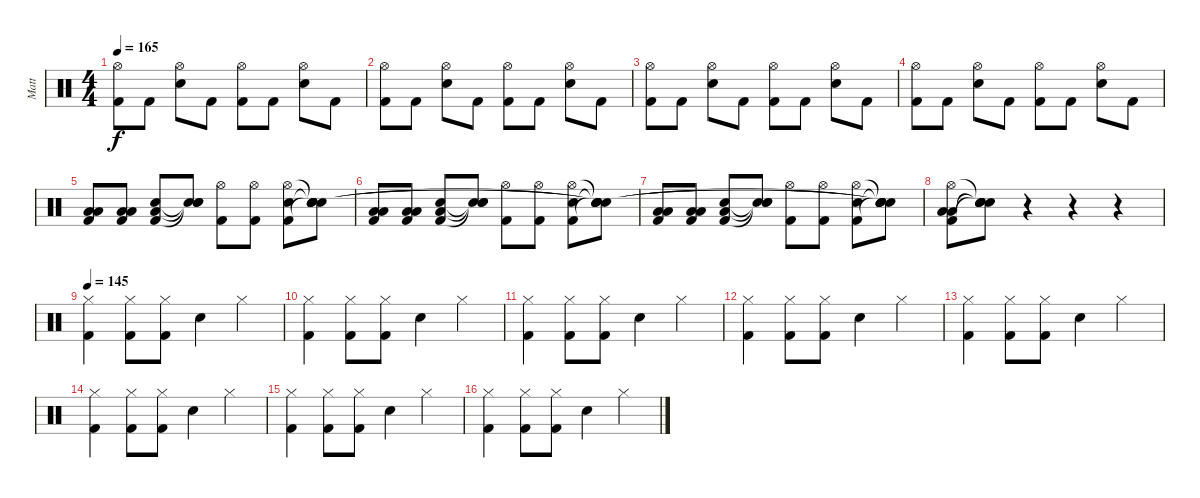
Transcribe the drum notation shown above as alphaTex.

\track ("Matt" "Matt") {instrument percussion}
\staff {score}
\articulation defaults
\ts (4 4)
\tempo 165
\clef neutral
\ks c
("Hi-Hat (open)" "Kick (hit) 2").8{dy f} "Kick (hit) 2".8 ("Hi-Hat (open)" "Electric Snare (hit)").8 "Kick (hit) 2".8 ("Hi-Hat (open)" "Kick (hit) 2").8 "Kick (hit) 2".8 ("Hi-Hat (open)" "Electric Snare (hit)").8 "Kick (hit) 2".8 |
("Hi-Hat (open)" "Kick (hit) 2").8 "Kick (hit) 2".8 ("Hi-Hat (open)" "Electric Snare (hit)").8 "Kick (hit) 2".8 ("Hi-Hat (open)" "Kick (hit) 2").8 "Kick (hit) 2".8 ("Hi-Hat (open)" "Electric Snare (hit)").8 "Kick (hit) 2".8 |
("Hi-Hat (open)" "Kick (hit) 2").8 "Kick (hit) 2".8 ("Hi-Hat (open)" "Electric Snare (hit)").8 "Kick (hit) 2".8 ("Hi-Hat (open)" "Kick (hit) 2").8 "Kick (hit) 2".8 ("Hi-Hat (open)" "Electric Snare (hit)").8 "Kick (hit) 2".8 |
("Hi-Hat (open)" "Kick (hit) 2").8 "Kick (hit) 2".8 ("Hi-Hat (open)" "Electric Snare (hit)").8 "Kick (hit) 2".8 ("Hi-Hat (open)" "Kick (hit) 2").8 "Kick (hit) 2".8 ("Hi-Hat (open)" "Electric Snare (hit)").8 "Kick (hit) 2".8 |
("Low Tom (hit)" "Kick (hit) 2" "Low Floor Tom (hit)").8 ("Low Tom (hit)" "Kick (hit) 2" "Low Floor Tom (hit)").8 ("Electric Snare (hit)" "Kick (hit) 2" "Low Floor Tom (hit)").8 ("Snare (hit)"{t} "Snare (hit)"{t} "Snare (hit)"{t}).8 ("Hi-Hat (open)" "Kick (hit) 2").8 ("Hi-Hat (open)" "Kick (hit) 2").8 ("Hi-Hat (open)" "Electric Snare (hit)" "Kick (hit) 2").8 ("Snare (hit)"{t} "Snare (hit)"{t} "Snare (hit)"{t} "Snare (hit)" "Snare (hit)").8 |
("Low Tom (hit)" "Kick (hit) 2" "Low Floor Tom (hit)").8 ("Low Tom (hit)" "Kick (hit) 2" "Low Floor Tom (hit)").8 ("Electric Snare (hit)" "Kick (hit) 2" "Low Floor Tom (hit)").8 ("Snare (hit)"{t} "Snare (hit)"{t} "Snare (hit)"{t}).8 ("Hi-Hat (open)" "Kick (hit) 2").8 ("Hi-Hat (open)" "Kick (hit) 2").8 ("Hi-Hat (open)" "Electric Snare (hit)" "Kick (hit) 2").8 ("Snare (hit)"{t} "Snare (hit)"{t} "Snare (hit)"{t} "Snare (hit)"{t} "Snare (hit)"{t}).8 |
("Low Tom (hit)" "Kick (hit) 2" "Low Floor Tom (hit)").8 ("Low Tom (hit)" "Kick (hit) 2" "Low Floor Tom (hit)").8 ("Electric Snare (hit)" "Kick (hit) 2" "Low Floor Tom (hit)").8 ("Snare (hit)"{t} "Snare (hit)"{t} "Snare (hit)"{t}).8 ("Hi-Hat (open)" "Kick (hit) 2").8 ("Hi-Hat (open)" "Kick (hit) 2").8 ("Hi-Hat (open)" "Electric Snare (hit)" "Kick (hit) 2").8 ("Snare (hit)"{t} "Snare (hit)"{t} "Snare (hit)"{t} "Snare (hit)"{t} "Snare (hit)"{t}).8 |
("Hi-Hat (open)" "Low Tom (hit)" "Kick (hit) 2" "Low Floor Tom (hit)").8 ("Snare (hit)"{t} "Snare (hit)"{t} "Snare (hit)"{t} "Snare (hit)"{t}).8 r.4 r.4 r.4 |
\tempo 145
("Hi-Hat (closed)" "Kick (hit) 2").4 ("Hi-Hat (closed)" "Kick (hit) 2").8 ("Hi-Hat (closed)" "Kick (hit) 2").8 "Electric Snare (hit)".4 "Hi-Hat (closed)".4 |
("Hi-Hat (closed)" "Kick (hit) 2").4 ("Hi-Hat (closed)" "Kick (hit) 2").8 ("Hi-Hat (closed)" "Kick (hit) 2").8 "Electric Snare (hit)".4 "Hi-Hat (closed)".4 |
("Hi-Hat (closed)" "Kick (hit) 2").4 ("Hi-Hat (closed)" "Kick (hit) 2").8 ("Hi-Hat (closed)" "Kick (hit) 2").8 "Electric Snare (hit)".4 "Hi-Hat (closed)".4 |
("Hi-Hat (closed)" "Kick (hit) 2").4 ("Hi-Hat (closed)" "Kick (hit) 2").8 ("Hi-Hat (closed)" "Kick (hit) 2").8 "Electric Snare (hit)".4 "Hi-Hat (closed)".4 |
("Hi-Hat (closed)" "Kick (hit) 2").4 ("Hi-Hat (closed)" "Kick (hit) 2").8 ("Hi-Hat (closed)" "Kick (hit) 2").8 "Electric Snare (hit)".4 "Hi-Hat (closed)".4 |
("Hi-Hat (closed)" "Kick (hit) 2").4 ("Hi-Hat (closed)" "Kick (hit) 2").8 ("Hi-Hat (closed)" "Kick (hit) 2").8 "Electric Snare (hit)".4 "Hi-Hat (closed)".4 |
("Hi-Hat (closed)" "Kick (hit) 2").4 ("Hi-Hat (closed)" "Kick (hit) 2").8 ("Hi-Hat (closed)" "Kick (hit) 2").8 "Electric Snare (hit)".4 "Hi-Hat (closed)".4 |
("Hi-Hat (closed)" "Kick (hit) 2").4 ("Hi-Hat (closed)" "Kick (hit) 2").8 ("Hi-Hat (closed)" "Kick (hit) 2").8 "Electric Snare (hit)".4 "Hi-Hat (closed)".4
